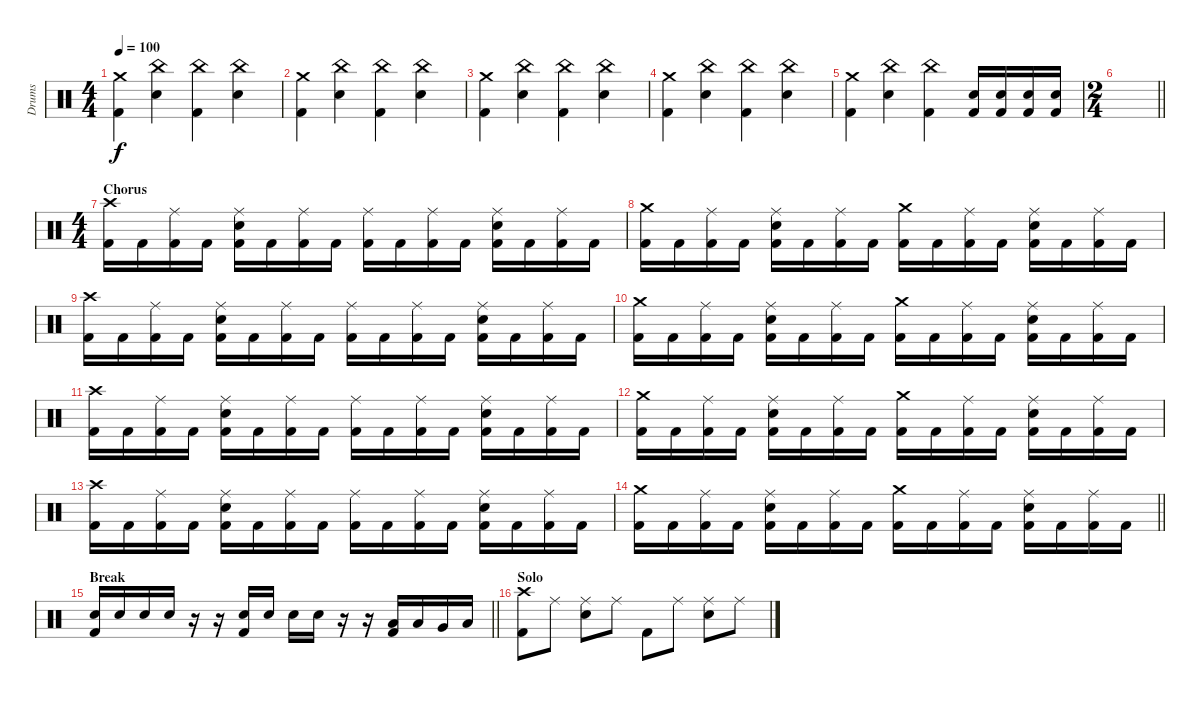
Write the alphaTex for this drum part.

\track ("Drums" "Drums") {instrument percussion}
\staff {score}
\articulation defaults
\ts (4 4)
\tempo 100
\clef neutral
\ks c
("Crash medium (hit)" "Kick (hit) 2").4{dy f} ("China (hit)" "Snare (hit) 2").4 ("China (hit)" "Kick (hit) 2").4 ("China (hit)" "Snare (hit) 2").4 |
("Crash medium (hit)" "Kick (hit) 2").4 ("China (hit)" "Snare (hit) 2").4 ("China (hit)" "Kick (hit) 2").4 ("China (hit)" "Snare (hit) 2").4 |
("Crash medium (hit)" "Kick (hit) 2").4 ("China (hit)" "Snare (hit) 2").4 ("China (hit)" "Kick (hit) 2").4 ("China (hit)" "Snare (hit) 2").4 |
("Crash medium (hit)" "Kick (hit) 2").4 ("China (hit)" "Snare (hit) 2").4 ("China (hit)" "Kick (hit) 2").4 ("China (hit)" "Snare (hit) 2").4 |
("Crash medium (hit)" "Kick (hit) 2").4 ("China (hit)" "Snare (hit) 2").4 ("China (hit)" "Kick (hit) 2").4 ("Snare (hit) 2" "Kick (hit) 2").16 ("Snare (hit) 2" "Kick (hit) 2").16 ("Snare (hit) 2" "Kick (hit) 2").16 ("Snare (hit) 2" "Kick (hit) 2").16 |
\ts (2 4)
\barLineRight lightlight
|
\ts (4 4)
\section ("" "Chorus")
("Crash high (hit)" "Kick (hit) 2").16 "Kick (hit) 2".16 ("Ride (middle)" "Kick (hit) 2").16 "Kick (hit) 2".16 ("Ride (middle)" "Snare (hit) 2" "Kick (hit) 2").16 "Kick (hit) 2".16 ("Ride (middle)" "Kick (hit) 2").16 "Kick (hit) 2".16 ("Ride (middle)" "Kick (hit) 2").16 "Kick (hit) 2".16 ("Ride (middle)" "Kick (hit) 2").16 "Kick (hit) 2".16 ("Ride (middle)" "Snare (hit) 2" "Kick (hit) 2").16 "Kick (hit) 2".16 ("Ride (middle)" "Kick (hit) 2").16 "Kick (hit) 2".16 |
("Crash medium (hit)" "Kick (hit) 2").16 "Kick (hit) 2".16 ("Ride (middle)" "Kick (hit) 2").16 "Kick (hit) 2".16 ("Ride (middle)" "Snare (hit) 2" "Kick (hit) 2").16 "Kick (hit) 2".16 ("Ride (middle)" "Kick (hit) 2").16 "Kick (hit) 2".16 ("Crash medium (hit)" "Kick (hit) 2").16 "Kick (hit) 2".16 ("Ride (middle)" "Kick (hit) 2").16 "Kick (hit) 2".16 ("Ride (middle)" "Snare (hit) 2" "Kick (hit) 2").16 "Kick (hit) 2".16 ("Ride (middle)" "Kick (hit) 2").16 "Kick (hit) 2".16 |
("Crash high (hit)" "Kick (hit) 2").16 "Kick (hit) 2".16 ("Ride (middle)" "Kick (hit) 2").16 "Kick (hit) 2".16 ("Ride (middle)" "Snare (hit) 2" "Kick (hit) 2").16 "Kick (hit) 2".16 ("Ride (middle)" "Kick (hit) 2").16 "Kick (hit) 2".16 ("Ride (middle)" "Kick (hit) 2").16 "Kick (hit) 2".16 ("Ride (middle)" "Kick (hit) 2").16 "Kick (hit) 2".16 ("Ride (middle)" "Snare (hit) 2" "Kick (hit) 2").16 "Kick (hit) 2".16 ("Ride (middle)" "Kick (hit) 2").16 "Kick (hit) 2".16 |
("Crash medium (hit)" "Kick (hit) 2").16 "Kick (hit) 2".16 ("Ride (middle)" "Kick (hit) 2").16 "Kick (hit) 2".16 ("Ride (middle)" "Snare (hit) 2" "Kick (hit) 2").16 "Kick (hit) 2".16 ("Ride (middle)" "Kick (hit) 2").16 "Kick (hit) 2".16 ("Crash medium (hit)" "Kick (hit) 2").16 "Kick (hit) 2".16 ("Ride (middle)" "Kick (hit) 2").16 "Kick (hit) 2".16 ("Ride (middle)" "Snare (hit) 2" "Kick (hit) 2").16 "Kick (hit) 2".16 ("Ride (middle)" "Kick (hit) 2").16 "Kick (hit) 2".16 |
("Crash high (hit)" "Kick (hit) 2").16 "Kick (hit) 2".16 ("Ride (middle)" "Kick (hit) 2").16 "Kick (hit) 2".16 ("Ride (middle)" "Snare (hit) 2" "Kick (hit) 2").16 "Kick (hit) 2".16 ("Ride (middle)" "Kick (hit) 2").16 "Kick (hit) 2".16 ("Ride (middle)" "Kick (hit) 2").16 "Kick (hit) 2".16 ("Ride (middle)" "Kick (hit) 2").16 "Kick (hit) 2".16 ("Ride (middle)" "Snare (hit) 2" "Kick (hit) 2").16 "Kick (hit) 2".16 ("Ride (middle)" "Kick (hit) 2").16 "Kick (hit) 2".16 |
("Crash medium (hit)" "Kick (hit) 2").16 "Kick (hit) 2".16 ("Ride (middle)" "Kick (hit) 2").16 "Kick (hit) 2".16 ("Ride (middle)" "Snare (hit) 2" "Kick (hit) 2").16 "Kick (hit) 2".16 ("Ride (middle)" "Kick (hit) 2").16 "Kick (hit) 2".16 ("Crash medium (hit)" "Kick (hit) 2").16 "Kick (hit) 2".16 ("Ride (middle)" "Kick (hit) 2").16 "Kick (hit) 2".16 ("Ride (middle)" "Snare (hit) 2" "Kick (hit) 2").16 "Kick (hit) 2".16 ("Ride (middle)" "Kick (hit) 2").16 "Kick (hit) 2".16 |
("Crash high (hit)" "Kick (hit) 2").16 "Kick (hit) 2".16 ("Ride (middle)" "Kick (hit) 2").16 "Kick (hit) 2".16 ("Ride (middle)" "Snare (hit) 2" "Kick (hit) 2").16 "Kick (hit) 2".16 ("Ride (middle)" "Kick (hit) 2").16 "Kick (hit) 2".16 ("Ride (middle)" "Kick (hit) 2").16 "Kick (hit) 2".16 ("Ride (middle)" "Kick (hit) 2").16 "Kick (hit) 2".16 ("Ride (middle)" "Snare (hit) 2" "Kick (hit) 2").16 "Kick (hit) 2".16 ("Ride (middle)" "Kick (hit) 2").16 "Kick (hit) 2".16 |
\barLineRight lightlight
("Crash medium (hit)" "Kick (hit) 2").16 "Kick (hit) 2".16 ("Ride (middle)" "Kick (hit) 2").16 "Kick (hit) 2".16 ("Ride (middle)" "Snare (hit) 2" "Kick (hit) 2").16 "Kick (hit) 2".16 ("Ride (middle)" "Kick (hit) 2").16 "Kick (hit) 2".16 ("Crash medium (hit)" "Kick (hit) 2").16 "Kick (hit) 2".16 ("Ride (middle)" "Kick (hit) 2").16 "Kick (hit) 2".16 ("Ride (middle)" "Snare (hit) 2" "Kick (hit) 2").16 "Kick (hit) 2".16 ("Ride (middle)" "Kick (hit) 2").16 "Kick (hit) 2".16 |
\section ("" "Break")
\barLineRight lightlight
("Snare (hit) 2" "Kick (hit) 2").16 "Snare (hit) 2".16 "Snare (hit) 2".16 "Snare (hit) 2".16 r.16 r.16 ("Snare (hit) 2" "Kick (hit) 2").16 "Snare (hit) 2".16 "Snare (hit) 2".16 "Snare (hit) 2".16 r.16 r.16 ("Low Tom (hit)" "Kick (hit) 2").16 "Low Tom (hit)".16 "Very Low Tom (hit)".16 "Low Floor Tom (hit)".16 |
\section ("" "Solo")
("Crash high (hit)" "Kick (hit) 2").8 "Ride (middle)".8 ("Ride (middle)" "Snare (hit) 2").8 "Ride (middle)".8 "Kick (hit) 2".8 "Ride (middle)".8 ("Ride (middle)" "Snare (hit) 2").8 "Ride (middle)".8
